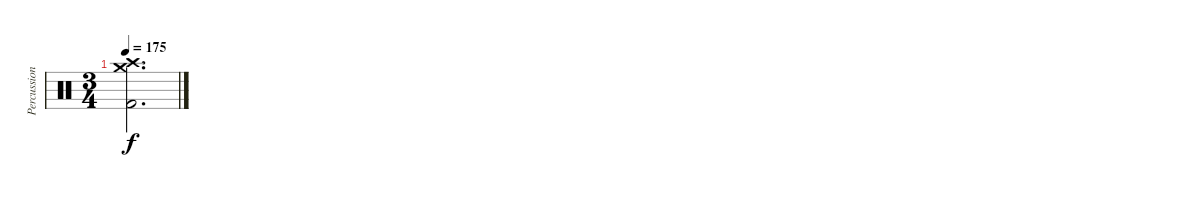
\track ("Percussion" "Percussion") {instrument percussion}
\staff {score}
\articulation defaults
\ts (3 4)
\tempo 175
\clef neutral
\ks c
("Crash high (hit)" "Crash medium (hit)" "Kick (hit) 2").2{d dy f}
